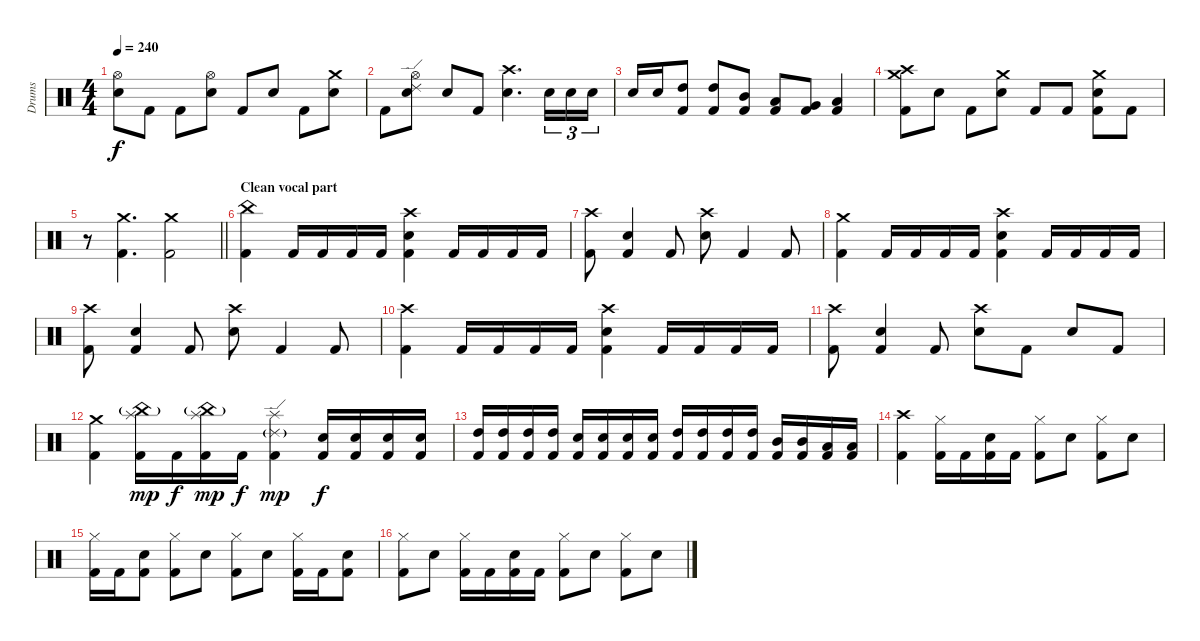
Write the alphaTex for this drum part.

\track ("Drums" "Drums") {instrument percussion}
\staff {score}
\articulation defaults
\ts (4 4)
\tempo 240
\clef neutral
\ks c
("Hi-Hat (open)" "Electric Snare (hit)").8{dy f} "Kick (hit) 2".8 "Kick (hit) 2".8 ("Hi-Hat (open)" "Electric Snare (hit)").8 "Kick (hit) 2".8 "Electric Snare (hit)".8 "Kick (hit) 2".8 ("Crash medium (hit)" "Electric Snare (hit)").8 |
"Kick (hit) 2".8 ("Ride (edge) 2" "Hi-Hat (open)" "Electric Snare (hit)").8 "Electric Snare (hit)".8 "Kick (hit) 2".8 ("Crash high (hit)" "Electric Snare (hit)").4{d} "Electric Snare (hit)".16{tu (3 2)} "Electric Snare (hit)".16{tu (3 2)} "Electric Snare (hit)".16{tu (3 2)} |
"Electric Snare (hit)".16 "Electric Snare (hit)".16 ("High Tom (hit)" "Kick (hit) 2").8 ("High Tom (hit)" "Kick (hit) 2").8 ("Mid Tom (hit)" "Kick (hit) 2").8 ("Low Tom (hit)" "Kick (hit) 2").8 ("Very Low Tom (hit)" "Kick (hit) 2").8 ("Low Floor Tom (hit)" "Kick (hit) 2").4 |
("Crash medium (hit)" "Crash high (hit)" "Kick (hit) 2").8 "Electric Snare (hit)".8 "Kick (hit) 2".8 ("Crash medium (hit)" "Electric Snare (hit)").8 "Kick (hit) 2".8 "Kick (hit) 2".8 ("Crash medium (hit)" "Electric Snare (hit)" "Kick (hit) 2").8 "Kick (hit) 2".8 |
\barLineRight lightlight
r.8 ("Crash medium (hit)" "Kick (hit) 2").4{d} ("Crash medium (hit)" "Kick (hit) 2").2 |
\section ("" "Clean vocal part")
("China (hit)" "Kick (hit) 2").4 "Kick (hit) 2".16 "Kick (hit) 2".16 "Kick (hit) 2".16 "Kick (hit) 2".16 ("Crash high (hit)" "Electric Snare (hit)" "Kick (hit) 2").4 "Kick (hit) 2".16 "Kick (hit) 2".16 "Kick (hit) 2".16 "Kick (hit) 2".16 |
("Crash high (hit)" "Kick (hit) 2").8 ("Electric Snare (hit)" "Kick (hit) 2").4 "Kick (hit) 2".8 ("Crash high (hit)" "Electric Snare (hit)").8 "Kick (hit) 2".4 "Kick (hit) 2".8 |
("Crash medium (hit)" "Kick (hit) 2").4 "Kick (hit) 2".16 "Kick (hit) 2".16 "Kick (hit) 2".16 "Kick (hit) 2".16 ("Crash high (hit)" "Electric Snare (hit)" "Kick (hit) 2").4 "Kick (hit) 2".16 "Kick (hit) 2".16 "Kick (hit) 2".16 "Kick (hit) 2".16 |
("Crash high (hit)" "Kick (hit) 2").8 ("Electric Snare (hit)" "Kick (hit) 2").4 "Kick (hit) 2".8 ("Crash high (hit)" "Electric Snare (hit)").8 "Kick (hit) 2".4 "Kick (hit) 2".8 |
("Crash high (hit)" "Kick (hit) 2").4 "Kick (hit) 2".16 "Kick (hit) 2".16 "Kick (hit) 2".16 "Kick (hit) 2".16 ("Crash high (hit)" "Electric Snare (hit)" "Kick (hit) 2").4 "Kick (hit) 2".16 "Kick (hit) 2".16 "Kick (hit) 2".16 "Kick (hit) 2".16 |
("Crash high (hit)" "Kick (hit) 2").8 ("Electric Snare (hit)" "Kick (hit) 2").4 "Kick (hit) 2".8 ("Crash high (hit)" "Electric Snare (hit)").8 "Kick (hit) 2".8 "Electric Snare (hit)".8 "Kick (hit) 2".8 |
("Crash medium (hit)" "Kick (hit) 2").4 ("China (hit)"{g} "Splash (hit)" "Kick (hit) 2").16{dy mp} "Kick (hit) 2".16{dy f} ("China (hit)"{g} "Splash (hit)" "Kick (hit) 2").16{dy mp} "Kick (hit) 2".16{dy f} ("Ride (edge) 2"{g} "Splash (hit)" "Kick (hit) 2").4{dy mp} ("Electric Snare (hit)" "Kick (hit) 2").16{dy f} ("Electric Snare (hit)" "Kick (hit) 2").16 ("Electric Snare (hit)" "Kick (hit) 2").16 ("Electric Snare (hit)" "Kick (hit) 2").16 |
("High Tom (hit)" "Kick (hit) 2").16 ("High Tom (hit)" "Kick (hit) 2").16 ("High Tom (hit)" "Kick (hit) 2").16 ("High Tom (hit)" "Kick (hit) 2").16 ("Electric Snare (hit)" "Kick (hit) 2").16 ("Electric Snare (hit)" "Kick (hit) 2").16 ("Electric Snare (hit)" "Kick (hit) 2").16 ("Electric Snare (hit)" "Kick (hit) 2").16 ("High Tom (hit)" "Kick (hit) 2").16 ("High Tom (hit)" "Kick (hit) 2").16 ("High Tom (hit)" "Kick (hit) 2").16 ("High Tom (hit)" "Kick (hit) 2").16 ("Mid Tom (hit)" "Kick (hit) 2").16 ("Mid Tom (hit)" "Kick (hit) 2").16 ("Low Tom (hit)" "Kick (hit) 2").16 ("Low Tom (hit)" "Kick (hit) 2").16 |
("Crash high (hit)" "Kick (hit) 2").4 ("Hi-Hat (closed)" "Kick (hit) 2").16 "Kick (hit) 2".16 ("Electric Snare (hit)" "Kick (hit) 2").16 "Kick (hit) 2".16 ("Hi-Hat (closed)" "Kick (hit) 2").8 "Electric Snare (hit)".8 ("Hi-Hat (closed)" "Kick (hit) 2").8 "Electric Snare (hit)".8 |
("Hi-Hat (closed)" "Kick (hit) 2").16 "Kick (hit) 2".16 ("Electric Snare (hit)" "Kick (hit) 2").8 ("Hi-Hat (closed)" "Kick (hit) 2").8 "Electric Snare (hit)".8 ("Hi-Hat (closed)" "Kick (hit) 2").8 "Electric Snare (hit)".8 ("Hi-Hat (closed)" "Kick (hit) 2").16 "Kick (hit) 2".16 ("Electric Snare (hit)" "Kick (hit) 2").8 |
("Hi-Hat (closed)" "Kick (hit) 2").8 "Electric Snare (hit)".8 ("Hi-Hat (closed)" "Kick (hit) 2").16 "Kick (hit) 2".16 ("Electric Snare (hit)" "Kick (hit) 2").16 "Kick (hit) 2".16 ("Hi-Hat (closed)" "Kick (hit) 2").8 "Electric Snare (hit)".8 ("Hi-Hat (closed)" "Kick (hit) 2").8 "Electric Snare (hit)".8
